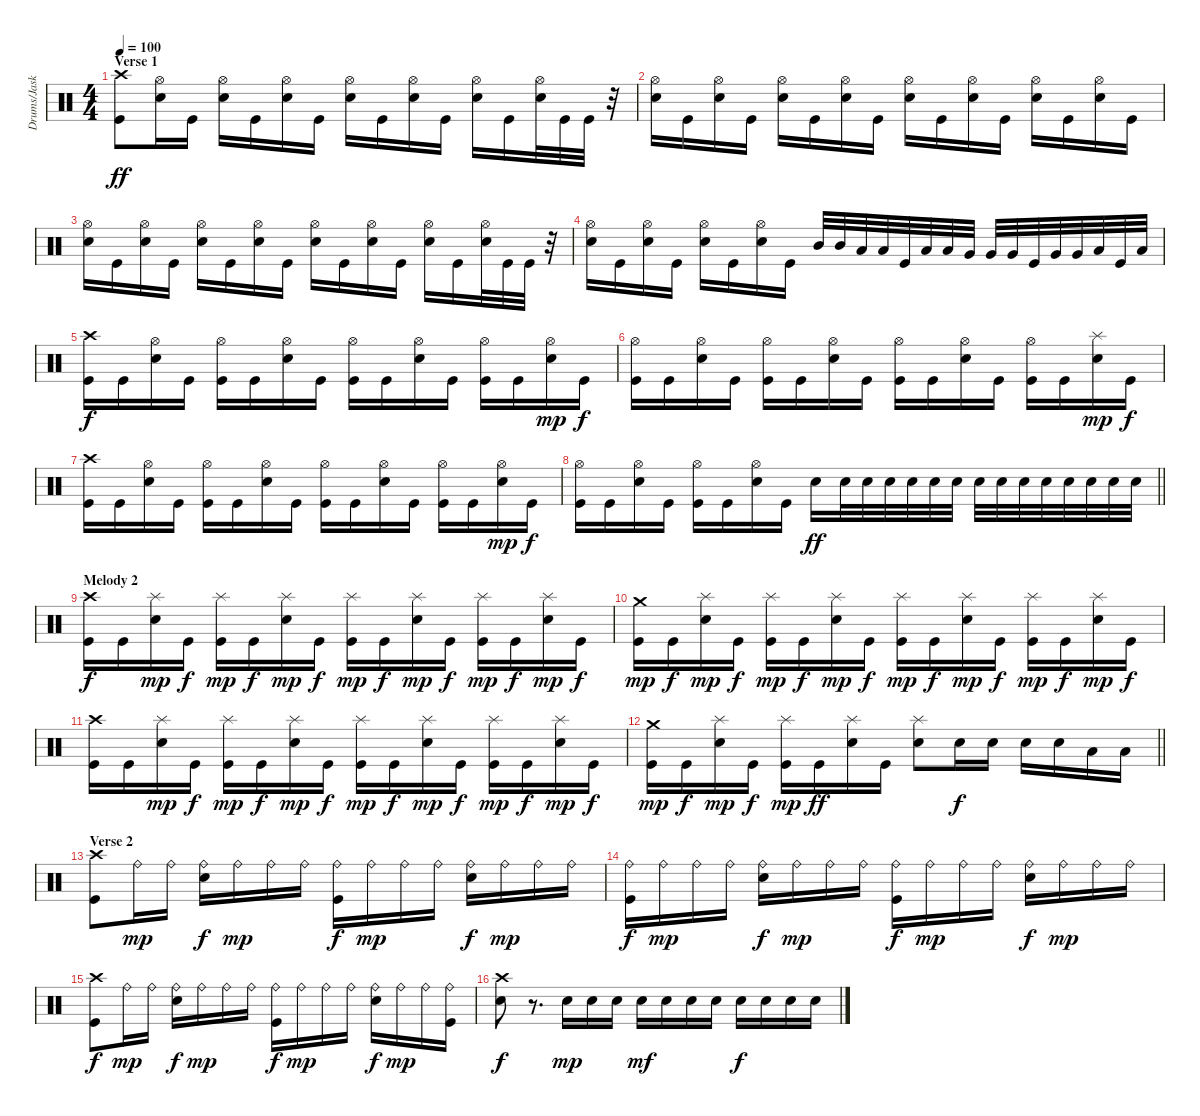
\track ("Drums/Jaska" "Drums/Jask") {instrument percussion}
\staff {score}
\articulation defaults
\ts (4 4)
\section ("" "Verse 1")
\tempo 100
\clef neutral
\ks c
("Crash high (hit)" "Kick (hit)").8{dy ff} ("Hi-Hat (open)" "Electric Snare (hit)").16 "Kick (hit)".16 ("Hi-Hat (open)" "Electric Snare (hit)").16 "Kick (hit)".16 ("Hi-Hat (open)" "Electric Snare (hit)").16 "Kick (hit)".16 ("Hi-Hat (open)" "Electric Snare (hit)").16 "Kick (hit)".16 ("Hi-Hat (open)" "Electric Snare (hit)").16 "Kick (hit)".16 ("Hi-Hat (open)" "Electric Snare (hit)").16 "Kick (hit)".16 ("Hi-Hat (open)" "Electric Snare (hit)").32 "Kick (hit)".32 "Kick (hit)".32 r.32 |
("Hi-Hat (open)" "Electric Snare (hit)").16 "Kick (hit)".16 ("Hi-Hat (open)" "Electric Snare (hit)").16 "Kick (hit)".16 ("Hi-Hat (open)" "Electric Snare (hit)").16 "Kick (hit)".16 ("Hi-Hat (open)" "Electric Snare (hit)").16 "Kick (hit)".16 ("Hi-Hat (open)" "Electric Snare (hit)").16 "Kick (hit)".16 ("Hi-Hat (open)" "Electric Snare (hit)").16 "Kick (hit)".16 ("Hi-Hat (open)" "Electric Snare (hit)").16 "Kick (hit)".16 ("Hi-Hat (open)" "Electric Snare (hit)").16 "Kick (hit)".16 |
("Hi-Hat (open)" "Electric Snare (hit)").16 "Kick (hit)".16 ("Hi-Hat (open)" "Electric Snare (hit)").16 "Kick (hit)".16 ("Hi-Hat (open)" "Electric Snare (hit)").16 "Kick (hit)".16 ("Hi-Hat (open)" "Electric Snare (hit)").16 "Kick (hit)".16 ("Hi-Hat (open)" "Electric Snare (hit)").16 "Kick (hit)".16 ("Hi-Hat (open)" "Electric Snare (hit)").16 "Kick (hit)".16 ("Hi-Hat (open)" "Electric Snare (hit)").16 "Kick (hit)".16 ("Hi-Hat (open)" "Electric Snare (hit)").32 "Kick (hit)".32 "Kick (hit)".32 r.32 |
("Hi-Hat (open)" "Electric Snare (hit)").16 "Kick (hit)".16 ("Hi-Hat (open)" "Electric Snare (hit)").16 "Kick (hit)".16 ("Hi-Hat (open)" "Electric Snare (hit)").16 "Kick (hit)".16 ("Hi-Hat (open)" "Electric Snare (hit)").16 "Kick (hit)".16 "Mid Tom (hit)".32 "Mid Tom (hit)".32 "Low Tom (hit)".32 "Low Tom (hit)".32 "Kick (hit)".32 "Low Tom (hit)".32 "Low Tom (hit)".32 "Very Low Tom (hit)".32 "Very Low Tom (hit)".32 "Very Low Tom (hit)".32 "Kick (hit)".32 "Very Low Tom (hit)".32 "Very Low Tom (hit)".32 "Low Floor Tom (hit)".32 "Kick (hit)".32 "Low Floor Tom (hit)".32 |
("Crash high (hit)" "Kick (hit)").16{dy f} "Kick (hit)".16 ("Hi-Hat (open)" "Electric Snare (hit)").16 "Kick (hit)".16 ("Hi-Hat (open)" "Kick (hit)").16 "Kick (hit)".16 ("Hi-Hat (open)" "Electric Snare (hit)").16 "Kick (hit)".16 ("Hi-Hat (open)" "Kick (hit)").16 "Kick (hit)".16 ("Hi-Hat (open)" "Electric Snare (hit)").16 "Kick (hit)".16 ("Hi-Hat (open)" "Kick (hit)").16 "Kick (hit)".16 ("Hi-Hat (open)" "Electric Snare (hit)").16{dy mp} "Kick (hit)".16{dy f} |
("Hi-Hat (open)" "Kick (hit)").16 "Kick (hit)".16 ("Hi-Hat (open)" "Electric Snare (hit)").16 "Kick (hit)".16 ("Hi-Hat (open)" "Kick (hit)").16 "Kick (hit)".16 ("Hi-Hat (open)" "Electric Snare (hit)").16 "Kick (hit)".16 ("Hi-Hat (open)" "Kick (hit)").16 "Kick (hit)".16 ("Hi-Hat (open)" "Electric Snare (hit)").16 "Kick (hit)".16 ("Hi-Hat (open)" "Kick (hit)").16 "Kick (hit)".16 ("Splash (hit)" "Electric Snare (hit)").16{dy mp} "Kick (hit)".16{dy f} |
("Crash high (hit)" "Kick (hit)").16 "Kick (hit)".16 ("Hi-Hat (open)" "Electric Snare (hit)").16 "Kick (hit)".16 ("Hi-Hat (open)" "Kick (hit)").16 "Kick (hit)".16 ("Hi-Hat (open)" "Electric Snare (hit)").16 "Kick (hit)".16 ("Hi-Hat (open)" "Kick (hit)").16 "Kick (hit)".16 ("Hi-Hat (open)" "Electric Snare (hit)").16 "Kick (hit)".16 ("Hi-Hat (open)" "Kick (hit)").16 "Kick (hit)".16 ("Hi-Hat (open)" "Electric Snare (hit)").16{dy mp} "Kick (hit)".16{dy f} |
\barLineRight lightlight
("Hi-Hat (open)" "Kick (hit)").16 "Kick (hit)".16 ("Hi-Hat (open)" "Electric Snare (hit)").16 "Kick (hit)".16 ("Hi-Hat (open)" "Kick (hit)").16 "Kick (hit)".16 ("Hi-Hat (open)" "Electric Snare (hit)").16 "Kick (hit)".16 "Electric Snare (hit)".16{dy ff} "Electric Snare (hit)".32 "Electric Snare (hit)".32 "Electric Snare (hit)".32 "Electric Snare (hit)".32 "Electric Snare (hit)".32 "Electric Snare (hit)".32 "Electric Snare (hit)".32 "Electric Snare (hit)".32 "Electric Snare (hit)".32 "Electric Snare (hit)".32 "Electric Snare (hit)".32 "Electric Snare (hit)".32 "Electric Snare (hit)".32 "Electric Snare (hit)".32 |
\section ("" "Melody 2")
("Crash high (hit)" "Kick (hit)").16{dy f} "Kick (hit)".16 ("Splash (hit)" "Electric Snare (hit)").16{dy mp} "Kick (hit)".16{dy f} ("Splash (hit)" "Kick (hit)").16{dy mp} "Kick (hit)".16{dy f} ("Splash (hit)" "Electric Snare (hit)").16{dy mp} "Kick (hit)".16{dy f} ("Splash (hit)" "Kick (hit)").16{dy mp} "Kick (hit)".16{dy f} ("Splash (hit)" "Electric Snare (hit)").16{dy mp} "Kick (hit)".16{dy f} ("Splash (hit)" "Kick (hit)").16{dy mp} "Kick (hit)".16{dy f} ("Splash (hit)" "Electric Snare (hit)").16{dy mp} "Kick (hit)".16{dy f} |
("Crash medium (hit)" "Kick (hit)").16{dy mp} "Kick (hit)".16{dy f} ("Splash (hit)" "Electric Snare (hit)").16{dy mp} "Kick (hit)".16{dy f} ("Splash (hit)" "Kick (hit)").16{dy mp} "Kick (hit)".16{dy f} ("Splash (hit)" "Electric Snare (hit)").16{dy mp} "Kick (hit)".16{dy f} ("Splash (hit)" "Kick (hit)").16{dy mp} "Kick (hit)".16{dy f} ("Splash (hit)" "Electric Snare (hit)").16{dy mp} "Kick (hit)".16{dy f} ("Splash (hit)" "Kick (hit)").16{dy mp} "Kick (hit)".16{dy f} ("Splash (hit)" "Electric Snare (hit)").16{dy mp} "Kick (hit)".16{dy f} |
("Crash high (hit)" "Kick (hit)").16 "Kick (hit)".16 ("Splash (hit)" "Electric Snare (hit)").16{dy mp} "Kick (hit)".16{dy f} ("Splash (hit)" "Kick (hit)").16{dy mp} "Kick (hit)".16{dy f} ("Splash (hit)" "Electric Snare (hit)").16{dy mp} "Kick (hit)".16{dy f} ("Splash (hit)" "Kick (hit)").16{dy mp} "Kick (hit)".16{dy f} ("Splash (hit)" "Electric Snare (hit)").16{dy mp} "Kick (hit)".16{dy f} ("Splash (hit)" "Kick (hit)").16{dy mp} "Kick (hit)".16{dy f} ("Splash (hit)" "Electric Snare (hit)").16{dy mp} "Kick (hit)".16{dy f} |
\barLineRight lightlight
("Crash medium (hit)" "Kick (hit)").16{dy mp} "Kick (hit)".16{dy f} ("Splash (hit)" "Electric Snare (hit)").16{dy mp} "Kick (hit)".16{dy f} ("Splash (hit)" "Kick (hit)").16{dy mp} "Kick (hit)".16{dy ff} ("Splash (hit)" "Electric Snare (hit)").16 "Kick (hit)".16 ("Splash (hit)" "Electric Snare (hit)").8 "Electric Snare (hit)".16{dy f} "Electric Snare (hit)".16 "Electric Snare (hit)".16 "Electric Snare (hit)".16 "Low Tom (hit)".16 "Low Tom (hit)".16 |
\section ("" "Verse 2")
("Crash high (hit)" "Kick (hit)").8 "Ride (bell)".16{dy mp} "Ride (bell)".16 ("Ride (bell)" "Electric Snare (hit)").16{dy f} "Ride (bell)".16{dy mp} "Ride (bell)".16 "Ride (bell)".16 ("Ride (bell)" "Kick (hit)").16{dy f} "Ride (bell)".16{dy mp} "Ride (bell)".16 "Ride (bell)".16 ("Ride (bell)" "Electric Snare (hit)").16{dy f} "Ride (bell)".16{dy mp} "Ride (bell)".16 "Ride (bell)".16 |
("Ride (bell)" "Kick (hit)").16{dy f} "Ride (bell)".16{dy mp} "Ride (bell)".16 "Ride (bell)".16 ("Ride (bell)" "Electric Snare (hit)").16{dy f} "Ride (bell)".16{dy mp} "Ride (bell)".16 "Ride (bell)".16 ("Ride (bell)" "Kick (hit)").16{dy f} "Ride (bell)".16{dy mp} "Ride (bell)".16 "Ride (bell)".16 ("Ride (bell)" "Electric Snare (hit)").16{dy f} "Ride (bell)".16{dy mp} "Ride (bell)".16 "Ride (bell)".16 |
("Crash high (hit)" "Kick (hit)").8{dy f} "Ride (bell)".16{dy mp} "Ride (bell)".16 ("Ride (bell)" "Electric Snare (hit)").16{dy f} "Ride (bell)".16{dy mp} "Ride (bell)".16 "Ride (bell)".16 ("Ride (bell)" "Kick (hit)").16{dy f} "Ride (bell)".16{dy mp} "Ride (bell)".16 "Ride (bell)".16 ("Ride (bell)" "Electric Snare (hit)").16{dy f} "Ride (bell)".16{dy mp} "Ride (bell)".16 ("Ride (bell)" "Kick (hit)").16 |
("Crash high (hit)" "Electric Snare (hit)").8{dy f} r.8{d} "Electric Snare (hit)".16{dy mp} "Electric Snare (hit)".16 "Electric Snare (hit)".16 "Electric Snare (hit)".16{dy mf} "Electric Snare (hit)".16 "Electric Snare (hit)".16 "Electric Snare (hit)".16 "Electric Snare (hit)".16{dy f} "Electric Snare (hit)".16 "Electric Snare (hit)".16 "Electric Snare (hit)".16
